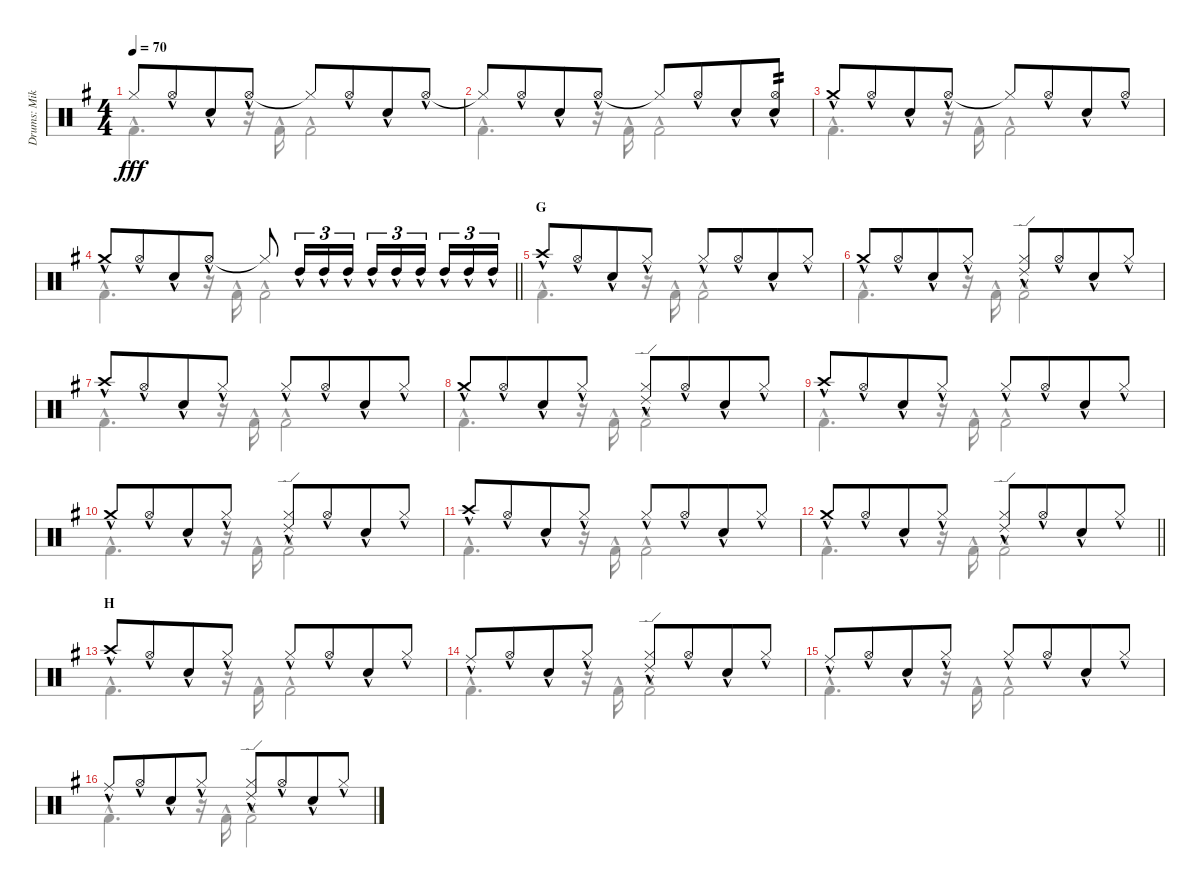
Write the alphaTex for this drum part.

\track ("Drums: Mike" "Drums: Mik") {instrument percussion}
\staff {score}
\articulation defaults
\voice
\ts (4 4)
\tempo 70
\clef neutral
\ks g "Hi-Hat (closed)"{t}.8{dy fff} "Hi-Hat (open)"{hac}.8{beam merge} "Snare (hit) 2"{hac}.8 "Hi-Hat (open)"{hac}.8 "Hi-Hat (closed)"{t}.8 "Hi-Hat (open)"{hac}.8{beam merge} "Snare (hit) 2"{hac}.8 "Hi-Hat (open)"{hac}.8
|
"Hi-Hat (closed)"{t}.8 "Hi-Hat (open)"{hac}.8{beam merge} "Snare (hit) 2"{hac}.8 "Hi-Hat (open)"{hac}.8 "Hi-Hat (closed)"{t}.8 "Hi-Hat (open)"{hac}.8{beam merge} "Snare (hit) 2"{hac}.8 ("Hi-Hat (open)"{hac} "Snare (hit) 2"{hac}).8{tp 2} |
"Crash medium (hit)"{hac}.8 "Hi-Hat (open)"{hac}.8{beam merge} "Snare (hit) 2"{hac}.8 "Hi-Hat (open)"{hac}.8 "Hi-Hat (closed)"{t}.8 "Hi-Hat (open)"{hac}.8{beam merge} "Snare (hit) 2"{hac}.8 "Hi-Hat (open)"{hac}.8 |
\barLineRight lightlight "Crash medium (hit)"{hac}.8 "Hi-Hat (open)"{hac}.8{beam merge} "Snare (hit) 2"{hac}.8 "Hi-Hat (open)"{hac}.8 "Hi-Hat (closed)"{t}.8 "High Tom (hit)"{hac}.16{tu (3 2) beam merge} "High Tom (hit)"{hac}.16{tu (3 2)} "High Tom (hit)"{hac}.16{tu (3 2)} "High Tom (hit)"{hac}.16{tu (3 2) beam merge} "High Tom (hit)"{hac}.16{tu (3 2)} "High Tom (hit)"{hac}.16{tu (3 2) beam splitsecondary} "High Tom (hit)"{hac}.16{tu (3 2) beam merge} "High Tom (hit)"{hac}.16{tu (3 2)} "High Tom (hit)"{hac}.16{tu (3 2)}
|
\section ("" "G")
"Crash high (hit)"{hac}.8 "Hi-Hat (open)"{hac}.8{beam merge} "Snare (hit) 2"{hac}.8 "Hi-Hat (closed)"{hac}.8 "Hi-Hat (closed)"{hac}.8 "Hi-Hat (open)"{hac}.8{beam merge} "Snare (hit) 2"{hac}.8 "Hi-Hat (closed)"{hac}.8 |
"Crash medium (hit)"{hac}.8 "Hi-Hat (open)"{hac}.8{beam merge} "Snare (hit) 2"{hac}.8 "Hi-Hat (closed)"{hac}.8 ("Ride (edge) 2"{hac} "Hi-Hat (closed)"{hac}).8 "Hi-Hat (open)"{hac}.8{beam merge} "Snare (hit) 2"{hac}.8 "Hi-Hat (closed)"{hac}.8 |
"Crash high (hit)"{hac}.8 "Hi-Hat (open)"{hac}.8{beam merge} "Snare (hit) 2"{hac}.8 "Hi-Hat (closed)"{hac}.8 "Hi-Hat (closed)"{hac}.8 "Hi-Hat (open)"{hac}.8{beam merge} "Snare (hit) 2"{hac}.8 "Hi-Hat (closed)"{hac}.8 |
"Crash medium (hit)"{hac}.8 "Hi-Hat (open)"{hac}.8{beam merge} "Snare (hit) 2"{hac}.8 "Hi-Hat (closed)"{hac}.8 ("Ride (edge) 2"{hac} "Hi-Hat (closed)"{hac}).8 "Hi-Hat (open)"{hac}.8{beam merge} "Snare (hit) 2"{hac}.8 "Hi-Hat (closed)"{hac}.8 |
"Crash high (hit)"{hac}.8 "Hi-Hat (open)"{hac}.8{beam merge} "Snare (hit) 2"{hac}.8 "Hi-Hat (closed)"{hac}.8 "Hi-Hat (closed)"{hac}.8 "Hi-Hat (open)"{hac}.8{beam merge} "Snare (hit) 2"{hac}.8 "Hi-Hat (closed)"{hac}.8 |
"Crash medium (hit)"{hac}.8 "Hi-Hat (open)"{hac}.8{beam merge} "Snare (hit) 2"{hac}.8 "Hi-Hat (closed)"{hac}.8 ("Ride (edge) 2"{hac} "Hi-Hat (closed)"{hac}).8 "Hi-Hat (open)"{hac}.8{beam merge} "Snare (hit) 2"{hac}.8 "Hi-Hat (closed)"{hac}.8 |
"Crash high (hit)"{hac}.8 "Hi-Hat (open)"{hac}.8{beam merge} "Snare (hit) 2"{hac}.8 "Hi-Hat (closed)"{hac}.8 "Hi-Hat (closed)"{hac}.8 "Hi-Hat (open)"{hac}.8{beam merge} "Snare (hit) 2"{hac}.8 "Hi-Hat (closed)"{hac}.8 |
\barLineRight lightlight "Crash medium (hit)"{hac}.8 "Hi-Hat (open)"{hac}.8{beam merge} "Snare (hit) 2"{hac}.8 "Hi-Hat (closed)"{hac}.8
("Ride (edge) 2"{hac} "Hi-Hat (closed)"{hac}).8 "Hi-Hat (open)"{hac}.8{beam merge} "Snare (hit) 2"{hac}.8 "Hi-Hat (closed)"{hac}.8 |
\section ("" "H")
"Crash high (hit)"{hac}.8 "Hi-Hat (open)"{hac}.8{beam merge} "Snare (hit) 2"{hac}.8 "Hi-Hat (closed)"{hac}.8 "Hi-Hat (closed)"{hac}.8 "Hi-Hat (open)"{hac}.8{beam merge} "Snare (hit) 2"{hac}.8 "Hi-Hat (closed)"{hac}.8 |
"Ride (middle)"{hac}.8 "Hi-Hat (open)"{hac}.8{beam merge} "Snare (hit) 2"{hac}.8 "Hi-Hat (closed)"{hac}.8 ("Ride (edge) 2"{hac} "Hi-Hat (closed)"{hac}).8 "Hi-Hat (open)"{hac}.8{beam merge} "Snare (hit) 2"{hac}.8 "Hi-Hat (closed)"{hac}.8 |
"Ride (middle)"{hac}.8 "Hi-Hat (open)"{hac}.8{beam merge} "Snare (hit) 2"{hac}.8 "Hi-Hat (closed)"{hac}.8 "Hi-Hat (closed)"{hac}.8 "Hi-Hat (open)"{hac}.8{beam merge} "Snare (hit) 2"{hac}.8 "Hi-Hat (closed)"{hac}.8 |
"Ride (middle)"{hac}.8 "Hi-Hat (open)"{hac}.8{beam merge} "Snare (hit) 2"{hac}.8 "Hi-Hat (closed)"{hac}.8 ("Ride (edge) 2"{hac} "Hi-Hat (closed)"{hac}).8 "Hi-Hat (open)"{hac}.8{beam merge} "Snare (hit) 2"{hac}.8 "Hi-Hat (closed)"{hac}.8
\voice
\clef neutral
\ottava regular
\simile none
\ks g "Kick (hit) 2"{hac}.4{d dy fff}
r.16 "Kick (hit) 2"{hac}.16 "Kick (hit) 2"{hac}.2 |
"Kick (hit) 2"{hac}.4{d} r.16 "Kick (hit) 2"{hac}.16 "Kick (hit) 2"{hac}.2 |
"Kick (hit) 2"{hac}.4{d} r.16 "Kick (hit) 2"{hac}.16 "Kick (hit) 2"{hac}.2 |
\barLineRight lightlight "Kick (hit) 2"{hac}.4{d}
r.16 "Kick (hit) 2"{hac}.16 "Kick (hit) 2"{hac}.2 |
"Kick (hit) 2"{hac}.4{d} r.16 "Kick (hit) 2"{hac}.16 "Kick (hit) 2"{hac}.2 |
"Kick (hit) 2"{hac}.4{d} r.16 "Kick (hit) 2"{hac}.16 "Kick (hit) 2"{hac}.2 |
"Kick (hit) 2"{hac}.4{d} r.16 "Kick (hit) 2"{hac}.16 "Kick (hit) 2"{hac}.2 |
"Kick (hit) 2"{hac}.4{d} r.16 "Kick (hit) 2"{hac}.16 "Kick (hit) 2"{hac}.2 |
"Kick (hit) 2"{hac}.4{d} r.16 "Kick (hit) 2"{hac}.16 "Kick (hit) 2"{hac}.2 |
"Kick (hit) 2"{hac}.4{d} r.16 "Kick (hit) 2"{hac}.16 "Kick (hit) 2"{hac}.2 |
"Kick (hit) 2"{hac}.4{d} r.16 "Kick (hit) 2"{hac}.16 "Kick (hit) 2"{hac}.2 |
\barLineRight lightlight "Kick (hit) 2"{hac}.4{d}
r.16 "Kick (hit) 2"{hac}.16 "Kick (hit) 2"{hac}.2 |
"Kick (hit) 2"{hac}.4{d} r.16 "Kick (hit) 2"{hac}.16 "Kick (hit) 2"{hac}.2 |
"Kick (hit) 2"{hac}.4{d} r.16 "Kick (hit) 2"{hac}.16 "Kick (hit) 2"{hac}.2 |
"Kick (hit) 2"{hac}.4{d} r.16 "Kick (hit) 2"{hac}.16 "Kick (hit) 2"{hac}.2 |
"Kick (hit) 2"{hac}.4{d} r.16 "Kick (hit) 2"{hac}.16 "Kick (hit) 2"{hac}.2
